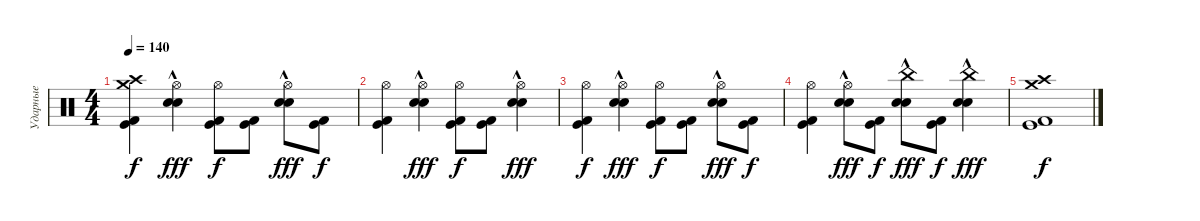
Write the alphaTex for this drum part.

\track ("Ударные" "Ударные") {instrument percussion}
\staff {score}
\articulation defaults
\ts (4 4)
\tempo 140
\clef neutral
\ks c
("Crash high (hit)" "Kick (hit)" "Kick (hit) 2" "Crash medium (hit)").4{dy f} ("Hi-Hat (open)" "Snare (hit) 2"{hac} "Electric Snare (hit)"{hac}).4{dy fff} ("Hi-Hat (open)" "Kick (hit)" "Kick (hit) 2").8{dy f} ("Kick (hit)" "Kick (hit) 2").8 ("Hi-Hat (open)" "Snare (hit) 2"{hac} "Electric Snare (hit)"{hac}).8{dy fff} ("Kick (hit)" "Kick (hit) 2").8{dy f} |
("Hi-Hat (open)" "Kick (hit)" "Kick (hit) 2").4 ("Hi-Hat (open)" "Snare (hit) 2"{hac} "Electric Snare (hit)"{hac}).4{dy fff} ("Hi-Hat (open)" "Kick (hit)" "Kick (hit) 2").8{dy f} ("Kick (hit)" "Kick (hit) 2").8 ("Hi-Hat (open)" "Snare (hit) 2"{hac} "Electric Snare (hit)"{hac}).4{dy fff} |
("Hi-Hat (open)" "Kick (hit)" "Kick (hit) 2").4{dy f} ("Hi-Hat (open)" "Snare (hit) 2"{hac} "Electric Snare (hit)"{hac}).4{dy fff} ("Hi-Hat (open)" "Kick (hit)" "Kick (hit) 2").8{dy f} ("Kick (hit)" "Kick (hit) 2").8 ("Hi-Hat (open)" "Snare (hit) 2"{hac} "Electric Snare (hit)"{hac}).8{dy fff} ("Kick (hit)" "Kick (hit) 2").8{dy f} |
("Hi-Hat (open)" "Kick (hit)" "Kick (hit) 2").4 ("Hi-Hat (open)" "Snare (hit) 2"{hac} "Electric Snare (hit)"{hac}).8{dy fff} ("Kick (hit)" "Kick (hit) 2").8{dy f} ("China (hit)" "Snare (hit) 2"{hac} "Electric Snare (hit)"{hac}).8{dy fff} ("Kick (hit)" "Kick (hit) 2").8{dy f} ("China (hit)" "Snare (hit) 2"{hac} "Electric Snare (hit)"{hac}).4{dy fff} |
("Crash high (hit)" "Kick (hit)" "Kick (hit) 2" "Crash medium (hit)").1{dy f}
